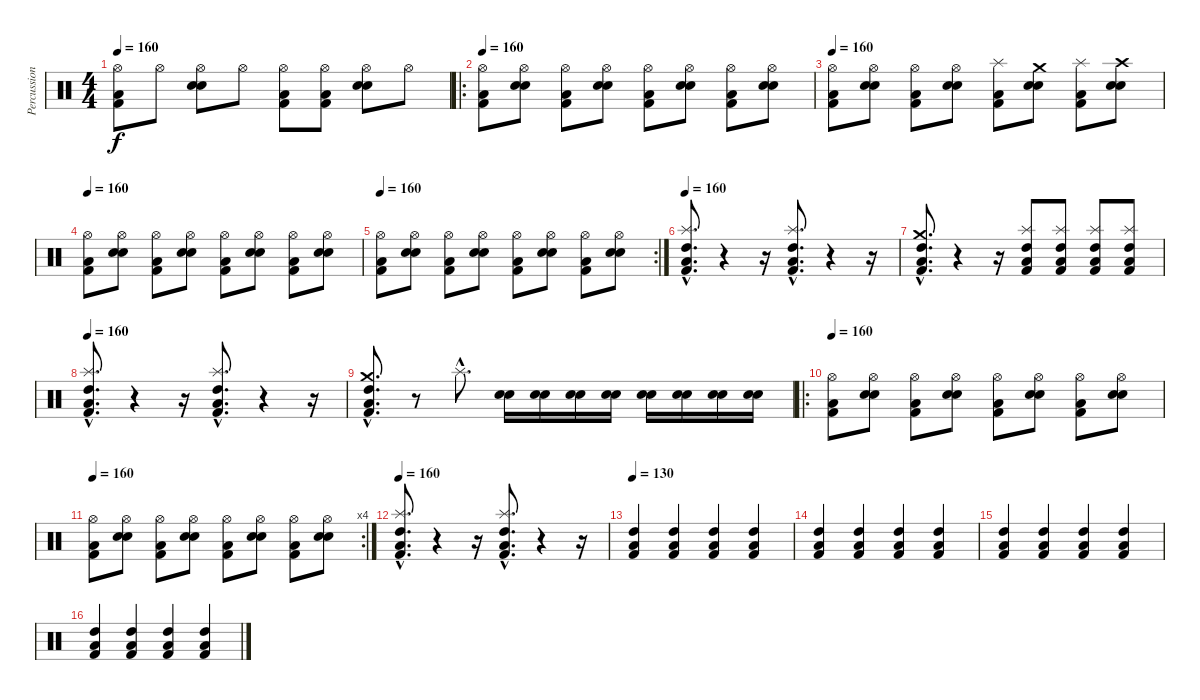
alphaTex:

\track ("Percussions" "Percussion") {instrument percussion}
\staff {score}
\articulation defaults
\ts (4 4)
\tempo 160
\clef neutral
\ks c
("Hi-Hat (open)" "Kick (hit) 2" "Low Floor Tom (hit)").8{dy f} "Hi-Hat (open)".8 ("Hi-Hat (open)" "Snare (hit) 2" "Electric Snare (hit)").8 "Hi-Hat (open)".8 ("Hi-Hat (open)" "Kick (hit) 2" "Low Floor Tom (hit)").8 ("Hi-Hat (open)" "Kick (hit) 2" "Low Floor Tom (hit)").8 ("Hi-Hat (open)" "Snare (hit) 2" "Electric Snare (hit)").8 "Hi-Hat (open)".8 |
\ro
\tempo 160
("Hi-Hat (open)" "Kick (hit) 2" "Low Floor Tom (hit)").8 ("Hi-Hat (open)" "Snare (hit) 2" "Electric Snare (hit)").8 ("Hi-Hat (open)" "Kick (hit) 2" "Low Floor Tom (hit)").8 ("Hi-Hat (open)" "Snare (hit) 2" "Electric Snare (hit)").8 ("Hi-Hat (open)" "Kick (hit) 2" "Low Floor Tom (hit)").8 ("Hi-Hat (open)" "Snare (hit) 2" "Electric Snare (hit)").8 ("Hi-Hat (open)" "Kick (hit) 2" "Low Floor Tom (hit)").8 ("Hi-Hat (open)" "Snare (hit) 2" "Electric Snare (hit)").8 |
\tempo 160
("Hi-Hat (open)" "Kick (hit) 2" "Low Floor Tom (hit)").8 ("Hi-Hat (open)" "Snare (hit) 2" "Electric Snare (hit)").8 ("Hi-Hat (open)" "Kick (hit) 2" "Low Floor Tom (hit)").8 ("Hi-Hat (open)" "Snare (hit) 2" "Electric Snare (hit)").8 ("Splash (hit)" "Kick (hit) 2" "Low Floor Tom (hit)").8 ("Crash medium (hit)" "Snare (hit) 2" "Electric Snare (hit)").8 ("Splash (hit)" "Kick (hit) 2" "Low Floor Tom (hit)").8 ("Crash high (hit)" "Snare (hit) 2" "Electric Snare (hit)").8 |
\tempo 160
("Hi-Hat (open)" "Kick (hit) 2" "Low Floor Tom (hit)").8 ("Hi-Hat (open)" "Snare (hit) 2" "Electric Snare (hit)").8 ("Hi-Hat (open)" "Kick (hit) 2" "Low Floor Tom (hit)").8 ("Hi-Hat (open)" "Snare (hit) 2" "Electric Snare (hit)").8 ("Hi-Hat (open)" "Kick (hit) 2" "Low Floor Tom (hit)").8 ("Hi-Hat (open)" "Snare (hit) 2" "Electric Snare (hit)").8 ("Hi-Hat (open)" "Kick (hit) 2" "Low Floor Tom (hit)").8 ("Hi-Hat (open)" "Snare (hit) 2" "Electric Snare (hit)").8 |
\rc 2
\tempo 160
("Hi-Hat (open)" "Kick (hit) 2" "Low Floor Tom (hit)").8 ("Hi-Hat (open)" "Snare (hit) 2" "Electric Snare (hit)").8 ("Hi-Hat (open)" "Kick (hit) 2" "Low Floor Tom (hit)").8 ("Hi-Hat (open)" "Snare (hit) 2" "Electric Snare (hit)").8 ("Hi-Hat (open)" "Kick (hit) 2" "Low Floor Tom (hit)").8 ("Hi-Hat (open)" "Snare (hit) 2" "Electric Snare (hit)").8 ("Hi-Hat (open)" "Kick (hit) 2" "Low Floor Tom (hit)").8 ("Hi-Hat (open)" "Snare (hit) 2" "Electric Snare (hit)").8 |
\tempo 160
("Splash (hit)"{hac} "High Tom (hit)"{hac} "Kick (hit) 2"{hac} "Low Floor Tom (hit)"{hac}).8{d} r.4 r.16 ("Splash (hit)"{hac} "High Tom (hit)"{hac} "Kick (hit) 2"{hac} "Low Floor Tom (hit)"{hac}).8{d} r.4 r.16 |
("Crash medium (hit)"{hac} "High Tom (hit)"{hac} "Kick (hit) 2"{hac} "Low Floor Tom (hit)"{hac}).8{d} r.4 r.16 ("Splash (hit)" "High Tom (hit)" "Kick (hit) 2" "Low Floor Tom (hit)").8 ("Splash (hit)" "High Tom (hit)" "Kick (hit) 2" "Low Floor Tom (hit)").8 ("Splash (hit)" "High Tom (hit)" "Kick (hit) 2" "Low Floor Tom (hit)").8 ("Splash (hit)" "High Tom (hit)" "Kick (hit) 2" "Low Floor Tom (hit)").8 |
\tempo 160
("Splash (hit)"{hac} "High Tom (hit)"{hac} "Kick (hit) 2"{hac} "Low Floor Tom (hit)"{hac}).8{d} r.4 r.16 ("Splash (hit)"{hac} "High Tom (hit)"{hac} "Kick (hit) 2"{hac} "Low Floor Tom (hit)"{hac}).8{d} r.4 r.16 |
("Crash medium (hit)"{hac} "High Tom (hit)"{hac} "Kick (hit) 2"{hac} "Low Floor Tom (hit)"{hac}).8{d} r.8 "Splash (hit)"{hac}.8{d} ("Snare (hit) 2" "Electric Snare (hit)").16 ("Snare (hit) 2" "Electric Snare (hit)").16 ("Snare (hit) 2" "Electric Snare (hit)").16 ("Snare (hit) 2" "Electric Snare (hit)").16 ("Snare (hit) 2" "Electric Snare (hit)").16 ("Snare (hit) 2" "Electric Snare (hit)").16 ("Snare (hit) 2" "Electric Snare (hit)").16 ("Snare (hit) 2" "Electric Snare (hit)").16 |
\ro
\tempo 160
("Hi-Hat (open)" "Kick (hit) 2" "Low Floor Tom (hit)").8 ("Hi-Hat (open)" "Snare (hit) 2" "Electric Snare (hit)").8 ("Hi-Hat (open)" "Kick (hit) 2" "Low Floor Tom (hit)").8 ("Hi-Hat (open)" "Snare (hit) 2" "Electric Snare (hit)").8 ("Hi-Hat (open)" "Kick (hit) 2" "Low Floor Tom (hit)").8 ("Hi-Hat (open)" "Snare (hit) 2" "Electric Snare (hit)").8 ("Hi-Hat (open)" "Kick (hit) 2" "Low Floor Tom (hit)").8 ("Hi-Hat (open)" "Snare (hit) 2" "Electric Snare (hit)").8 |
\rc 4
\tempo 160
("Hi-Hat (open)" "Kick (hit) 2" "Low Floor Tom (hit)").8 ("Hi-Hat (open)" "Snare (hit) 2" "Electric Snare (hit)").8 ("Hi-Hat (open)" "Kick (hit) 2" "Low Floor Tom (hit)").8 ("Hi-Hat (open)" "Snare (hit) 2" "Electric Snare (hit)").8 ("Hi-Hat (open)" "Kick (hit) 2" "Low Floor Tom (hit)").8 ("Hi-Hat (open)" "Snare (hit) 2" "Electric Snare (hit)").8 ("Hi-Hat (open)" "Kick (hit) 2" "Low Floor Tom (hit)").8 ("Hi-Hat (open)" "Snare (hit) 2" "Electric Snare (hit)").8 |
\tempo 160
("Splash (hit)"{hac} "High Tom (hit)"{hac} "Kick (hit) 2"{hac} "Low Floor Tom (hit)"{hac}).8{d} r.4 r.16 ("Splash (hit)"{hac} "High Tom (hit)"{hac} "Kick (hit) 2"{hac} "Low Floor Tom (hit)"{hac}).8{d} r.4 r.16 |
\tempo 130
("High Tom (hit)" "Kick (hit) 2" "Low Floor Tom (hit)").4 ("High Tom (hit)" "Kick (hit) 2" "Low Floor Tom (hit)").4 ("High Tom (hit)" "Kick (hit) 2" "Low Floor Tom (hit)").4 ("High Tom (hit)" "Kick (hit) 2" "Low Floor Tom (hit)").4 |
("High Tom (hit)" "Kick (hit) 2" "Low Floor Tom (hit)").4 ("High Tom (hit)" "Kick (hit) 2" "Low Floor Tom (hit)").4 ("High Tom (hit)" "Kick (hit) 2" "Low Floor Tom (hit)").4 ("High Tom (hit)" "Kick (hit) 2" "Low Floor Tom (hit)").4 |
("High Tom (hit)" "Kick (hit) 2" "Low Floor Tom (hit)").4 ("High Tom (hit)" "Kick (hit) 2" "Low Floor Tom (hit)").4 ("High Tom (hit)" "Kick (hit) 2" "Low Floor Tom (hit)").4 ("High Tom (hit)" "Kick (hit) 2" "Low Floor Tom (hit)").4 |
("High Tom (hit)" "Kick (hit) 2" "Low Floor Tom (hit)").4 ("High Tom (hit)" "Kick (hit) 2" "Low Floor Tom (hit)").4 ("High Tom (hit)" "Kick (hit) 2" "Low Floor Tom (hit)").4 ("High Tom (hit)" "Kick (hit) 2" "Low Floor Tom (hit)").4
